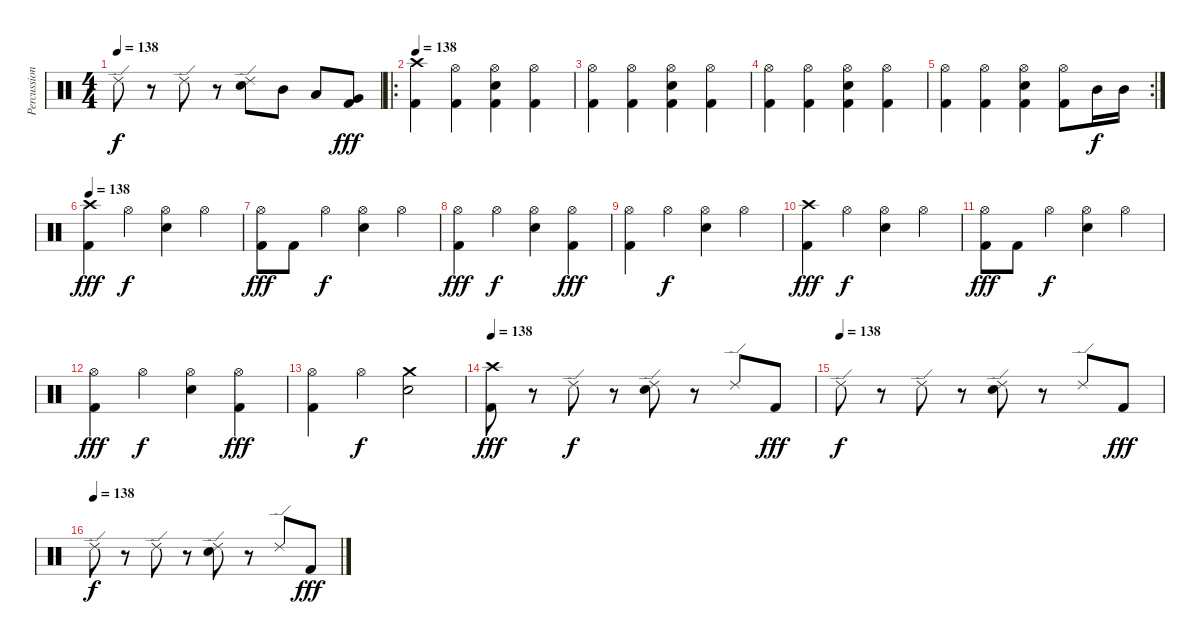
\track ("Percussion" "Percussion") {instrument percussion}
\staff {score}
\articulation defaults
\ts (4 4)
\tempo 138
\clef neutral
\ks c "Ride (edge) 2".8{dy f}
r.8 "Ride (edge) 2".8 r.8 ("Ride (edge) 2" "Snare (hit) 2").8 "Mid Tom (hit)".8 "Low Tom (hit)".8 ("Very Low Tom (hit)" "Kick (hit) 2").8{dy fff} |
\ro
\tempo 138
("Crash high (hit)" "Kick (hit) 2").4 ("Hi-Hat (open)" "Kick (hit) 2").4 ("Hi-Hat (open)" "Snare (hit) 2" "Kick (hit) 2").4 ("Hi-Hat (open)" "Kick (hit) 2").4 |
("Hi-Hat (open)" "Kick (hit) 2").4 ("Hi-Hat (open)" "Kick (hit) 2").4 ("Hi-Hat (open)" "Snare (hit) 2" "Kick (hit) 2").4 ("Hi-Hat (open)" "Kick (hit) 2").4 |
("Hi-Hat (open)" "Kick (hit) 2").4 ("Hi-Hat (open)" "Kick (hit) 2").4 ("Hi-Hat (open)" "Snare (hit) 2" "Kick (hit) 2").4 ("Hi-Hat (open)" "Kick (hit) 2").4 |
\rc 2
("Hi-Hat (open)" "Kick (hit) 2").4 ("Hi-Hat (open)" "Kick (hit) 2").4 ("Hi-Hat (open)" "Snare (hit) 2" "Kick (hit) 2").4 ("Hi-Hat (open)" "Kick (hit) 2").8 "Mid Tom (hit)".16{dy f} "Mid Tom (hit)".16 |
\tempo 138
("Crash high (hit)" "Kick (hit) 2").4{dy fff} "Hi-Hat (open)".4{dy f} ("Hi-Hat (open)" "Snare (hit) 2").4 "Hi-Hat (open)".4 |
("Hi-Hat (open)" "Kick (hit) 2").8{dy fff} "Kick (hit) 2".8 "Hi-Hat (open)".4{dy f} ("Hi-Hat (open)" "Snare (hit) 2").4 "Hi-Hat (open)".4 |
("Hi-Hat (open)" "Kick (hit) 2").4{dy fff} "Hi-Hat (open)".4{dy f} ("Hi-Hat (open)" "Snare (hit) 2").4 ("Hi-Hat (open)" "Kick (hit) 2").4{dy fff} |
("Hi-Hat (open)" "Kick (hit) 2").4 "Hi-Hat (open)".4{dy f} ("Hi-Hat (open)" "Snare (hit) 2").4 "Hi-Hat (open)".4 |
("Crash high (hit)" "Kick (hit) 2").4{dy fff} "Hi-Hat (open)".4{dy f} ("Hi-Hat (open)" "Snare (hit) 2").4 "Hi-Hat (open)".4 |
("Hi-Hat (open)" "Kick (hit) 2").8{dy fff} "Kick (hit) 2".8 "Hi-Hat (open)".4{dy f} ("Hi-Hat (open)" "Snare (hit) 2").4 "Hi-Hat (open)".4 |
("Hi-Hat (open)" "Kick (hit) 2").4{dy fff} "Hi-Hat (open)".4{dy f} ("Hi-Hat (open)" "Snare (hit) 2").4 ("Hi-Hat (open)" "Kick (hit) 2").4{dy fff} |
("Hi-Hat (open)" "Kick (hit) 2").4 "Hi-Hat (open)".4{dy f} ("Crash medium (hit)" "Snare (hit) 2").2 |
\tempo 138
("Crash high (hit)" "Kick (hit) 2").8{dy fff} r.8 "Ride (edge) 2".8{dy f} r.8 ("Ride (edge) 2" "Snare (hit) 2").8 r.8 "Ride (edge) 2".8 "Kick (hit) 2".8{dy fff} |
\tempo (138)
"Ride (edge) 2".8{dy f} r.8 "Ride (edge) 2".8 r.8 ("Ride (edge) 2" "Snare (hit) 2").8 r.8 "Ride (edge) 2".8 "Kick (hit) 2".8{dy fff} |
\tempo (138)
"Ride (edge) 2".8{dy f} r.8 "Ride (edge) 2".8 r.8 ("Ride (edge) 2" "Snare (hit) 2").8 r.8 "Ride (edge) 2".8 "Kick (hit) 2".8{dy fff}
